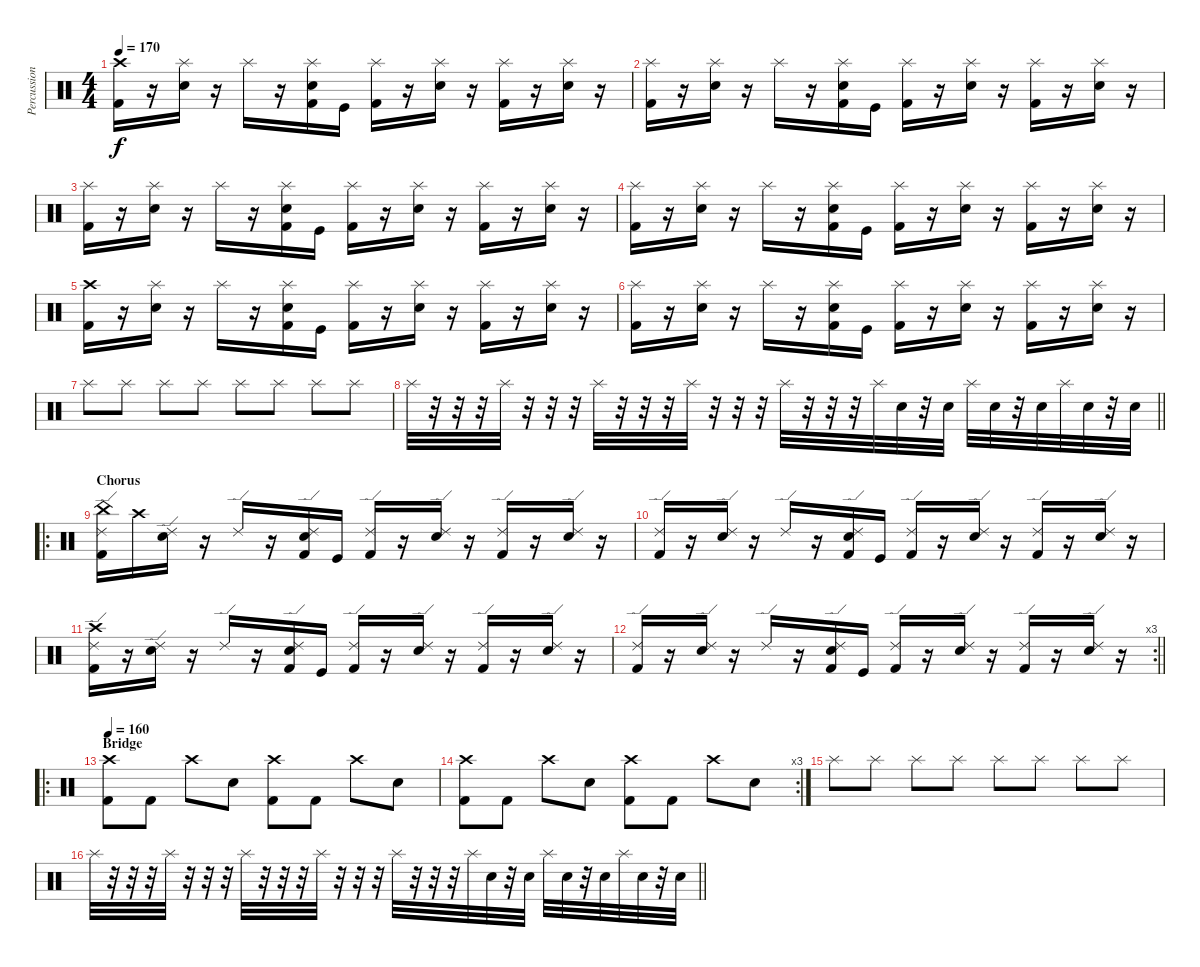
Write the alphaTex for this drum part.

\track ("Percussion" "Percussion") {instrument percussion}
\staff {score}
\articulation defaults
\ts (4 4)
\tempo 170
\clef neutral
\ks c
("Crash high (hit)" "Kick (hit) 2").16{dy f} r.16 ("Splash (hit)" "Electric Snare (hit)").16 r.16 "Splash (hit)".16 r.16 ("Splash (hit)" "Electric Snare (hit)" "Kick (hit) 2").16 "Kick (hit)".16 ("Splash (hit)" "Kick (hit) 2").16 r.16 ("Splash (hit)" "Electric Snare (hit)").16 r.16 ("Splash (hit)" "Kick (hit) 2").16 r.16 ("Splash (hit)" "Electric Snare (hit)").16 r.16 |
("Splash (hit)" "Kick (hit) 2").16 r.16 ("Splash (hit)" "Electric Snare (hit)").16 r.16 "Splash (hit)".16 r.16 ("Splash (hit)" "Electric Snare (hit)" "Kick (hit) 2").16 "Kick (hit)".16 ("Splash (hit)" "Kick (hit) 2").16 r.16 ("Splash (hit)" "Electric Snare (hit)").16 r.16 ("Splash (hit)" "Kick (hit) 2").16 r.16 ("Splash (hit)" "Electric Snare (hit)").16 r.16 |
("Splash (hit)" "Kick (hit) 2").16 r.16 ("Splash (hit)" "Electric Snare (hit)").16 r.16 "Splash (hit)".16 r.16 ("Splash (hit)" "Electric Snare (hit)" "Kick (hit) 2").16 "Kick (hit)".16 ("Splash (hit)" "Kick (hit) 2").16 r.16 ("Splash (hit)" "Electric Snare (hit)").16 r.16 ("Splash (hit)" "Kick (hit) 2").16 r.16 ("Splash (hit)" "Electric Snare (hit)").16 r.16 |
("Splash (hit)" "Kick (hit) 2").16 r.16 ("Splash (hit)" "Electric Snare (hit)").16 r.16 "Splash (hit)".16 r.16 ("Splash (hit)" "Electric Snare (hit)" "Kick (hit) 2").16 "Kick (hit)".16 ("Splash (hit)" "Kick (hit) 2").16 r.16 ("Splash (hit)" "Electric Snare (hit)").16 r.16 ("Splash (hit)" "Kick (hit) 2").16 r.16 ("Splash (hit)" "Electric Snare (hit)").16 r.16 |
("Crash high (hit)" "Kick (hit) 2").16 r.16 ("Splash (hit)" "Electric Snare (hit)").16 r.16 "Splash (hit)".16 r.16 ("Splash (hit)" "Electric Snare (hit)" "Kick (hit) 2").16 "Kick (hit)".16 ("Splash (hit)" "Kick (hit) 2").16 r.16 ("Splash (hit)" "Electric Snare (hit)").16 r.16 ("Splash (hit)" "Kick (hit) 2").16 r.16 ("Splash (hit)" "Electric Snare (hit)").16 r.16 |
("Splash (hit)" "Kick (hit) 2").16 r.16 ("Splash (hit)" "Electric Snare (hit)").16 r.16 "Splash (hit)".16 r.16 ("Splash (hit)" "Electric Snare (hit)" "Kick (hit) 2").16 "Kick (hit)".16 ("Splash (hit)" "Kick (hit) 2").16 r.16 ("Splash (hit)" "Electric Snare (hit)").16 r.16 ("Splash (hit)" "Kick (hit) 2").16 r.16 ("Splash (hit)" "Electric Snare (hit)").16 r.16 |
"Splash (hit)".8 "Splash (hit)".8 "Splash (hit)".8 "Splash (hit)".8 "Splash (hit)".8 "Splash (hit)".8 "Splash (hit)".8 "Splash (hit)".8 |
\barLineRight lightlight "Splash (hit)".32
r.32 r.32 r.32 "Splash (hit)".32 r.32 r.32 r.32 "Splash (hit)".32 r.32 r.32 r.32 "Splash (hit)".32 r.32 r.32 r.32 "Splash (hit)".32 r.32 r.32 r.32 "Splash (hit)".32 "Electric Snare (hit)".32 r.32 "Electric Snare (hit)".32 "Splash (hit)".32 "Electric Snare (hit)".32 r.32 "Electric Snare (hit)".32 "Splash (hit)".32 "Electric Snare (hit)".32 r.32 "Electric Snare (hit)".32 |
\ro
\section ("" "Chorus")
("China (hit)" "Ride (edge) 2" "Kick (hit) 2").16 "Crash high (hit)".16 ("Ride (edge) 2" "Electric Snare (hit)").16 r.16 "Ride (edge) 2".16 r.16 ("Ride (edge) 2" "Electric Snare (hit)" "Kick (hit) 2").16 "Kick (hit)".16 ("Ride (edge) 2" "Kick (hit) 2").16 r.16 ("Ride (edge) 2" "Electric Snare (hit)").16 r.16 ("Ride (edge) 2" "Kick (hit) 2").16 r.16 ("Ride (edge) 2" "Electric Snare (hit)").16 r.16 |
("Ride (edge) 2" "Kick (hit) 2").16 r.16 ("Ride (edge) 2" "Electric Snare (hit)").16 r.16 "Ride (edge) 2".16 r.16 ("Ride (edge) 2" "Electric Snare (hit)" "Kick (hit) 2").16 "Kick (hit)".16 ("Ride (edge) 2" "Kick (hit) 2").16 r.16 ("Ride (edge) 2" "Electric Snare (hit)").16 r.16 ("Ride (edge) 2" "Kick (hit) 2").16 r.16 ("Ride (edge) 2" "Electric Snare (hit)").16 r.16 |
("Crash high (hit)" "Ride (edge) 2" "Kick (hit) 2").16 r.16 ("Ride (edge) 2" "Electric Snare (hit)").16 r.16 "Ride (edge) 2".16 r.16 ("Ride (edge) 2" "Electric Snare (hit)" "Kick (hit) 2").16 "Kick (hit)".16 ("Ride (edge) 2" "Kick (hit) 2").16 r.16 ("Ride (edge) 2" "Electric Snare (hit)").16 r.16 ("Ride (edge) 2" "Kick (hit) 2").16 r.16 ("Ride (edge) 2" "Electric Snare (hit)").16 r.16 |
\rc 3
\barLineRight lightlight
("Ride (edge) 2" "Kick (hit) 2").16 r.16 ("Ride (edge) 2" "Electric Snare (hit)").16 r.16 "Ride (edge) 2".16 r.16 ("Ride (edge) 2" "Electric Snare (hit)" "Kick (hit) 2").16 "Kick (hit)".16 ("Ride (edge) 2" "Kick (hit) 2").16 r.16 ("Ride (edge) 2" "Electric Snare (hit)").16 r.16 ("Ride (edge) 2" "Kick (hit) 2").16 r.16 ("Ride (edge) 2" "Electric Snare (hit)").16 r.16 |
\ro
\section ("" "Bridge")
\tempo 160
("Crash high (hit)" "Kick (hit) 2").8 "Kick (hit) 2".8 "Crash high (hit)".8 "Electric Snare (hit)".8 ("Crash high (hit)" "Kick (hit) 2").8 "Kick (hit) 2".8 "Crash high (hit)".8 "Electric Snare (hit)".8 |
\rc 3
("Crash high (hit)" "Kick (hit) 2").8 "Kick (hit) 2".8 "Crash high (hit)".8 "Electric Snare (hit)".8 ("Crash high (hit)" "Kick (hit) 2").8 "Kick (hit) 2".8 "Crash high (hit)".8 "Electric Snare (hit)".8 |
"Splash (hit)".8 "Splash (hit)".8 "Splash (hit)".8 "Splash (hit)".8 "Splash (hit)".8 "Splash (hit)".8 "Splash (hit)".8 "Splash (hit)".8 |
\barLineRight lightlight "Splash (hit)".32
r.32 r.32 r.32 "Splash (hit)".32 r.32 r.32 r.32 "Splash (hit)".32 r.32 r.32 r.32 "Splash (hit)".32 r.32 r.32 r.32 "Splash (hit)".32 r.32 r.32 r.32 "Splash (hit)".32 "Electric Snare (hit)".32 r.32 "Electric Snare (hit)".32 "Splash (hit)".32 "Electric Snare (hit)".32 r.32 "Electric Snare (hit)".32 "Splash (hit)".32 "Electric Snare (hit)".32 r.32 "Electric Snare (hit)".32
